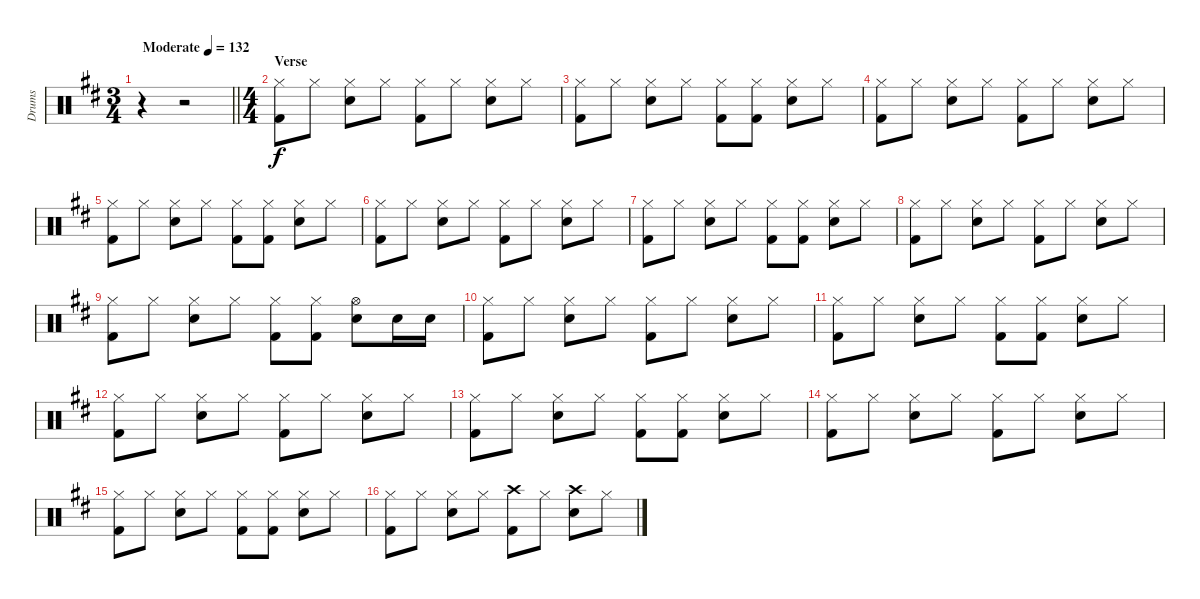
\track ("Drums" "Drums") {instrument percussion}
\staff {score}
\articulation defaults
\ts (3 4)
\tempo (132 "Moderate")
\clef neutral
\barLineRight lightlight
\ks d
r.4{dy f} r.2 |
\ts (4 4)
\section ("" "Verse")
("Hi-Hat (closed)" "Kick (hit) 2").8 "Hi-Hat (closed)".8 ("Hi-Hat (closed)" "Electric Snare (hit)").8 "Hi-Hat (closed)".8 ("Hi-Hat (closed)" "Kick (hit) 2").8 "Hi-Hat (closed)".8 ("Hi-Hat (closed)" "Electric Snare (hit)").8 "Hi-Hat (closed)".8 |
("Hi-Hat (closed)" "Kick (hit) 2").8 "Hi-Hat (closed)".8 ("Hi-Hat (closed)" "Electric Snare (hit)").8 "Hi-Hat (closed)".8 ("Hi-Hat (closed)" "Kick (hit) 2").8 ("Hi-Hat (closed)" "Kick (hit) 2").8 ("Hi-Hat (closed)" "Electric Snare (hit)").8 "Hi-Hat (closed)".8 |
("Hi-Hat (closed)" "Kick (hit) 2").8 "Hi-Hat (closed)".8 ("Hi-Hat (closed)" "Electric Snare (hit)").8 "Hi-Hat (closed)".8 ("Hi-Hat (closed)" "Kick (hit) 2").8 "Hi-Hat (closed)".8 ("Hi-Hat (closed)" "Electric Snare (hit)").8 "Hi-Hat (closed)".8 |
("Hi-Hat (closed)" "Kick (hit) 2").8 "Hi-Hat (closed)".8 ("Hi-Hat (closed)" "Electric Snare (hit)").8 "Hi-Hat (closed)".8 ("Hi-Hat (closed)" "Kick (hit) 2").8 ("Hi-Hat (closed)" "Kick (hit) 2").8 ("Hi-Hat (closed)" "Electric Snare (hit)").8 "Hi-Hat (closed)".8 |
("Hi-Hat (closed)" "Kick (hit) 2").8 "Hi-Hat (closed)".8 ("Hi-Hat (closed)" "Electric Snare (hit)").8 "Hi-Hat (closed)".8 ("Hi-Hat (closed)" "Kick (hit) 2").8 "Hi-Hat (closed)".8 ("Hi-Hat (closed)" "Electric Snare (hit)").8 "Hi-Hat (closed)".8 |
("Hi-Hat (closed)" "Kick (hit) 2").8 "Hi-Hat (closed)".8 ("Hi-Hat (closed)" "Electric Snare (hit)").8 "Hi-Hat (closed)".8 ("Hi-Hat (closed)" "Kick (hit) 2").8 ("Hi-Hat (closed)" "Kick (hit) 2").8 ("Hi-Hat (closed)" "Electric Snare (hit)").8 "Hi-Hat (closed)".8 |
("Hi-Hat (closed)" "Kick (hit) 2").8 "Hi-Hat (closed)".8 ("Hi-Hat (closed)" "Electric Snare (hit)").8 "Hi-Hat (closed)".8 ("Hi-Hat (closed)" "Kick (hit) 2").8 "Hi-Hat (closed)".8 ("Hi-Hat (closed)" "Electric Snare (hit)").8 "Hi-Hat (closed)".8 |
("Hi-Hat (closed)" "Kick (hit) 2").8 "Hi-Hat (closed)".8 ("Hi-Hat (closed)" "Electric Snare (hit)").8 "Hi-Hat (closed)".8 ("Hi-Hat (closed)" "Kick (hit) 2").8 ("Hi-Hat (closed)" "Kick (hit) 2").8 ("Hi-Hat (open)" "Electric Snare (hit)").8 "Electric Snare (hit)".16 "Electric Snare (hit)".16 |
("Hi-Hat (closed)" "Kick (hit) 2").8 "Hi-Hat (closed)".8 ("Hi-Hat (closed)" "Electric Snare (hit)").8 "Hi-Hat (closed)".8 ("Hi-Hat (closed)" "Kick (hit) 2").8 "Hi-Hat (closed)".8 ("Hi-Hat (closed)" "Electric Snare (hit)").8 "Hi-Hat (closed)".8 |
("Hi-Hat (closed)" "Kick (hit) 2").8 "Hi-Hat (closed)".8 ("Hi-Hat (closed)" "Electric Snare (hit)").8 "Hi-Hat (closed)".8 ("Hi-Hat (closed)" "Kick (hit) 2").8 ("Hi-Hat (closed)" "Kick (hit) 2").8 ("Hi-Hat (closed)" "Electric Snare (hit)").8 "Hi-Hat (closed)".8 |
("Hi-Hat (closed)" "Kick (hit) 2").8 "Hi-Hat (closed)".8 ("Hi-Hat (closed)" "Electric Snare (hit)").8 "Hi-Hat (closed)".8 ("Hi-Hat (closed)" "Kick (hit) 2").8 "Hi-Hat (closed)".8 ("Hi-Hat (closed)" "Electric Snare (hit)").8 "Hi-Hat (closed)".8 |
("Hi-Hat (closed)" "Kick (hit) 2").8 "Hi-Hat (closed)".8 ("Hi-Hat (closed)" "Electric Snare (hit)").8 "Hi-Hat (closed)".8 ("Hi-Hat (closed)" "Kick (hit) 2").8 ("Hi-Hat (closed)" "Kick (hit) 2").8 ("Hi-Hat (closed)" "Electric Snare (hit)").8 "Hi-Hat (closed)".8 |
("Hi-Hat (closed)" "Kick (hit) 2").8 "Hi-Hat (closed)".8 ("Hi-Hat (closed)" "Electric Snare (hit)").8 "Hi-Hat (closed)".8 ("Hi-Hat (closed)" "Kick (hit) 2").8 "Hi-Hat (closed)".8 ("Hi-Hat (closed)" "Electric Snare (hit)").8 "Hi-Hat (closed)".8 |
("Hi-Hat (closed)" "Kick (hit) 2").8 "Hi-Hat (closed)".8 ("Hi-Hat (closed)" "Electric Snare (hit)").8 "Hi-Hat (closed)".8 ("Hi-Hat (closed)" "Kick (hit) 2").8 ("Hi-Hat (closed)" "Kick (hit) 2").8 ("Hi-Hat (closed)" "Electric Snare (hit)").8 "Hi-Hat (closed)".8 |
("Hi-Hat (closed)" "Kick (hit) 2").8 "Hi-Hat (closed)".8 ("Hi-Hat (closed)" "Electric Snare (hit)").8 "Hi-Hat (closed)".8 ("Crash high (hit)" "Kick (hit) 2").8 "Hi-Hat (closed)".8 ("Crash high (hit)" "Electric Snare (hit)").8 "Hi-Hat (closed)".8
